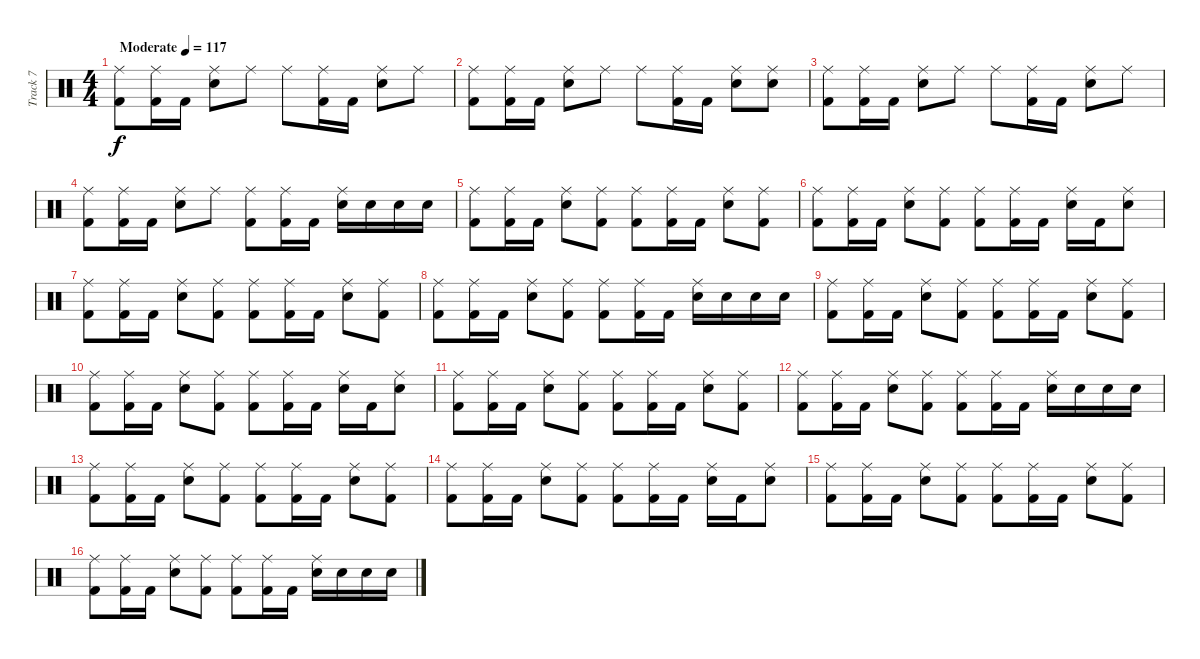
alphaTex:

\track ("Track 7" "Track 7") {instrument percussion}
\staff {score}
\articulation defaults
\ts (4 4)
\tempo (117 "Moderate")
\clef neutral
\ks c
("Ride (middle)" "Kick (hit) 2").8{dy f} ("Ride (middle)" "Kick (hit) 2").16 "Kick (hit) 2".16 ("Ride (middle)" "Snare (hit) 2").8 "Ride (middle)".8 "Ride (middle)".8 ("Ride (middle)" "Kick (hit) 2").16 "Kick (hit) 2".16 ("Ride (middle)" "Snare (hit) 2").8 "Ride (middle)".8 |
("Ride (middle)" "Kick (hit) 2").8 ("Ride (middle)" "Kick (hit) 2").16 "Kick (hit) 2".16 ("Ride (middle)" "Snare (hit) 2").8 "Ride (middle)".8 "Ride (middle)".8 ("Ride (middle)" "Kick (hit) 2").16 "Kick (hit) 2".16 ("Ride (middle)" "Snare (hit) 2").8 ("Ride (middle)" "Snare (hit) 2").8 |
("Ride (middle)" "Kick (hit) 2").8 ("Ride (middle)" "Kick (hit) 2").16 "Kick (hit) 2".16 ("Ride (middle)" "Snare (hit) 2").8 "Ride (middle)".8 "Ride (middle)".8 ("Ride (middle)" "Kick (hit) 2").16 "Kick (hit) 2".16 ("Ride (middle)" "Snare (hit) 2").8 "Ride (middle)".8 |
("Ride (middle)" "Kick (hit) 2").8 ("Ride (middle)" "Kick (hit) 2").16 "Kick (hit) 2".16 ("Ride (middle)" "Snare (hit) 2").8 "Ride (middle)".8 ("Ride (middle)" "Kick (hit) 2").8 ("Ride (middle)" "Kick (hit) 2").16 "Kick (hit) 2".16 ("Ride (middle)" "Snare (hit) 2").16 "Snare (hit) 2".16 "Snare (hit) 2".16 "Snare (hit) 2".16 |
("Ride (middle)" "Kick (hit) 2").8 ("Ride (middle)" "Kick (hit) 2").16 "Kick (hit) 2".16 ("Ride (middle)" "Snare (hit) 2").8 ("Ride (middle)" "Kick (hit) 2").8 ("Ride (middle)" "Kick (hit) 2").8 ("Ride (middle)" "Kick (hit) 2").16 "Kick (hit) 2".16 ("Ride (middle)" "Snare (hit) 2").8 ("Ride (middle)" "Kick (hit) 2").8 |
("Ride (middle)" "Kick (hit) 2").8 ("Ride (middle)" "Kick (hit) 2").16 "Kick (hit) 2".16 ("Ride (middle)" "Snare (hit) 2").8 ("Ride (middle)" "Kick (hit) 2").8 ("Ride (middle)" "Kick (hit) 2").8 ("Ride (middle)" "Kick (hit) 2").16 "Kick (hit) 2".16 ("Ride (middle)" "Snare (hit) 2").16 "Kick (hit) 2".16 ("Ride (middle)" "Snare (hit) 2").8 |
("Ride (middle)" "Kick (hit) 2").8 ("Ride (middle)" "Kick (hit) 2").16 "Kick (hit) 2".16 ("Ride (middle)" "Snare (hit) 2").8 ("Ride (middle)" "Kick (hit) 2").8 ("Ride (middle)" "Kick (hit) 2").8 ("Ride (middle)" "Kick (hit) 2").16 "Kick (hit) 2".16 ("Ride (middle)" "Snare (hit) 2").8 ("Ride (middle)" "Kick (hit) 2").8 |
("Ride (middle)" "Kick (hit) 2").8 ("Ride (middle)" "Kick (hit) 2").16 "Kick (hit) 2".16 ("Ride (middle)" "Snare (hit) 2").8 ("Ride (middle)" "Kick (hit) 2").8 ("Ride (middle)" "Kick (hit) 2").8 ("Ride (middle)" "Kick (hit) 2").16 "Kick (hit) 2".16 ("Ride (middle)" "Snare (hit) 2").16 "Snare (hit) 2".16 "Snare (hit) 2".16 "Snare (hit) 2".16 |
("Ride (middle)" "Kick (hit) 2").8 ("Ride (middle)" "Kick (hit) 2").16 "Kick (hit) 2".16 ("Ride (middle)" "Snare (hit) 2").8 ("Ride (middle)" "Kick (hit) 2").8 ("Ride (middle)" "Kick (hit) 2").8 ("Ride (middle)" "Kick (hit) 2").16 "Kick (hit) 2".16 ("Ride (middle)" "Snare (hit) 2").8 ("Ride (middle)" "Kick (hit) 2").8 |
("Ride (middle)" "Kick (hit) 2").8 ("Ride (middle)" "Kick (hit) 2").16 "Kick (hit) 2".16 ("Ride (middle)" "Snare (hit) 2").8 ("Ride (middle)" "Kick (hit) 2").8 ("Ride (middle)" "Kick (hit) 2").8 ("Ride (middle)" "Kick (hit) 2").16 "Kick (hit) 2".16 ("Ride (middle)" "Snare (hit) 2").16 "Kick (hit) 2".16 ("Ride (middle)" "Snare (hit) 2").8 |
("Ride (middle)" "Kick (hit) 2").8 ("Ride (middle)" "Kick (hit) 2").16 "Kick (hit) 2".16 ("Ride (middle)" "Snare (hit) 2").8 ("Ride (middle)" "Kick (hit) 2").8 ("Ride (middle)" "Kick (hit) 2").8 ("Ride (middle)" "Kick (hit) 2").16 "Kick (hit) 2".16 ("Ride (middle)" "Snare (hit) 2").8 ("Ride (middle)" "Kick (hit) 2").8 |
("Ride (middle)" "Kick (hit) 2").8 ("Ride (middle)" "Kick (hit) 2").16 "Kick (hit) 2".16 ("Ride (middle)" "Snare (hit) 2").8 ("Ride (middle)" "Kick (hit) 2").8 ("Ride (middle)" "Kick (hit) 2").8 ("Ride (middle)" "Kick (hit) 2").16 "Kick (hit) 2".16 ("Ride (middle)" "Snare (hit) 2").16 "Snare (hit) 2".16 "Snare (hit) 2".16 "Snare (hit) 2".16 |
("Ride (middle)" "Kick (hit) 2").8 ("Ride (middle)" "Kick (hit) 2").16 "Kick (hit) 2".16 ("Ride (middle)" "Snare (hit) 2").8 ("Ride (middle)" "Kick (hit) 2").8 ("Ride (middle)" "Kick (hit) 2").8 ("Ride (middle)" "Kick (hit) 2").16 "Kick (hit) 2".16 ("Ride (middle)" "Snare (hit) 2").8 ("Ride (middle)" "Kick (hit) 2").8 |
("Ride (middle)" "Kick (hit) 2").8 ("Ride (middle)" "Kick (hit) 2").16 "Kick (hit) 2".16 ("Ride (middle)" "Snare (hit) 2").8 ("Ride (middle)" "Kick (hit) 2").8 ("Ride (middle)" "Kick (hit) 2").8 ("Ride (middle)" "Kick (hit) 2").16 "Kick (hit) 2".16 ("Ride (middle)" "Snare (hit) 2").16 "Kick (hit) 2".16 ("Ride (middle)" "Snare (hit) 2").8 |
("Ride (middle)" "Kick (hit) 2").8 ("Ride (middle)" "Kick (hit) 2").16 "Kick (hit) 2".16 ("Ride (middle)" "Snare (hit) 2").8 ("Ride (middle)" "Kick (hit) 2").8 ("Ride (middle)" "Kick (hit) 2").8 ("Ride (middle)" "Kick (hit) 2").16 "Kick (hit) 2".16 ("Ride (middle)" "Snare (hit) 2").8 ("Ride (middle)" "Kick (hit) 2").8 |
("Ride (middle)" "Kick (hit) 2").8 ("Ride (middle)" "Kick (hit) 2").16 "Kick (hit) 2".16 ("Ride (middle)" "Snare (hit) 2").8 ("Ride (middle)" "Kick (hit) 2").8 ("Ride (middle)" "Kick (hit) 2").8 ("Ride (middle)" "Kick (hit) 2").16 "Kick (hit) 2".16 ("Ride (middle)" "Snare (hit) 2").16 "Snare (hit) 2".16 "Snare (hit) 2".16 "Snare (hit) 2".16
